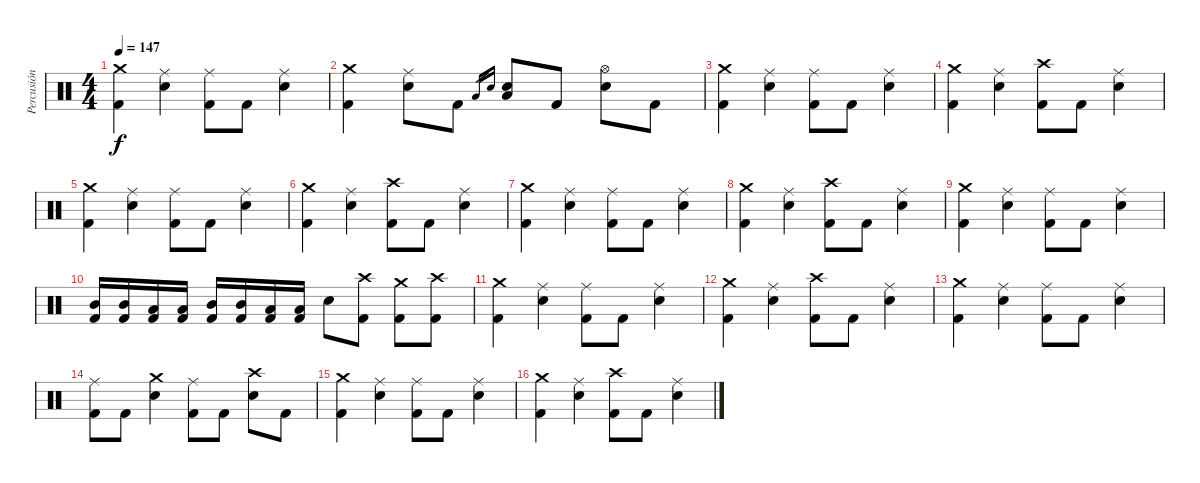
\track ("Percusión" "Percusión") {instrument percussion}
\staff {score}
\articulation defaults
\ts (4 4)
\tempo 147
\clef neutral
\ks c
("Crash medium (hit)" "Kick (hit) 2").4{dy f} ("Ride (middle)" "Snare (hit) 2").4 ("Ride (middle)" "Kick (hit) 2").8 "Kick (hit) 2".8 ("Ride (middle)" "Snare (hit) 2").4 |
("Crash medium (hit)" "Kick (hit) 2").4 ("Ride (middle)" "Snare (hit) 2").8 "Kick (hit) 2".8 "Low Tom (hit)".16{gr} "Snare (hit) 2".16{gr} ("Low Tom (hit)" "Snare (hit) 2").8 "Kick (hit) 2".8 ("Hi-Hat (open)" "Snare (hit) 2").8 "Kick (hit) 2".8 |
("Crash medium (hit)" "Kick (hit) 2").4 ("Ride (middle)" "Snare (hit) 2").4 ("Ride (middle)" "Kick (hit) 2").8 "Kick (hit) 2".8 ("Ride (middle)" "Snare (hit) 2").4 |
("Crash medium (hit)" "Kick (hit) 2").4 ("Ride (middle)" "Snare (hit) 2").4 ("Crash high (hit)" "Kick (hit) 2").8 "Kick (hit) 2".8 ("Ride (middle)" "Snare (hit) 2").4 |
("Crash medium (hit)" "Kick (hit) 2").4 ("Ride (middle)" "Snare (hit) 2").4 ("Ride (middle)" "Kick (hit) 2").8 "Kick (hit) 2".8 ("Ride (middle)" "Snare (hit) 2").4 |
("Crash medium (hit)" "Kick (hit) 2").4 ("Ride (middle)" "Snare (hit) 2").4 ("Crash high (hit)" "Kick (hit) 2").8 "Kick (hit) 2".8 ("Ride (middle)" "Snare (hit) 2").4 |
("Crash medium (hit)" "Kick (hit) 2").4 ("Ride (middle)" "Snare (hit) 2").4 ("Ride (middle)" "Kick (hit) 2").8 "Kick (hit) 2".8 ("Ride (middle)" "Snare (hit) 2").4 |
("Crash medium (hit)" "Kick (hit) 2").4 ("Ride (middle)" "Snare (hit) 2").4 ("Crash high (hit)" "Kick (hit) 2").8 "Kick (hit) 2".8 ("Ride (middle)" "Snare (hit) 2").4 |
("Crash medium (hit)" "Kick (hit) 2").4 ("Ride (middle)" "Snare (hit) 2").4 ("Ride (middle)" "Kick (hit) 2").8 "Kick (hit) 2".8 ("Ride (middle)" "Snare (hit) 2").4 |
("Mid Tom (hit)" "Kick (hit) 2").16 ("Mid Tom (hit)" "Kick (hit) 2").16 ("Low Tom (hit)" "Kick (hit) 2").16 ("Low Tom (hit)" "Kick (hit) 2").16 ("Mid Tom (hit)" "Kick (hit) 2").16 ("Mid Tom (hit)" "Kick (hit) 2").16 ("Low Tom (hit)" "Kick (hit) 2").16 ("Low Tom (hit)" "Kick (hit) 2").16 "Snare (hit) 2".8 ("Crash high (hit)" "Kick (hit) 2").8 ("Crash medium (hit)" "Kick (hit) 2").8 ("Crash high (hit)" "Kick (hit) 2").8 |
("Crash medium (hit)" "Kick (hit) 2").4 ("Ride (middle)" "Snare (hit) 2").4 ("Ride (middle)" "Kick (hit) 2").8 "Kick (hit) 2".8 ("Ride (middle)" "Snare (hit) 2").4 |
("Crash medium (hit)" "Kick (hit) 2").4 ("Ride (middle)" "Snare (hit) 2").4 ("Crash high (hit)" "Kick (hit) 2").8 "Kick (hit) 2".8 ("Ride (middle)" "Snare (hit) 2").4 |
("Crash medium (hit)" "Kick (hit) 2").4 ("Ride (middle)" "Snare (hit) 2").4 ("Ride (middle)" "Kick (hit) 2").8 "Kick (hit) 2".8 ("Ride (middle)" "Snare (hit) 2").4 |
("Ride (middle)" "Kick (hit) 2").8 "Kick (hit) 2".8 ("Crash medium (hit)" "Snare (hit) 2").4 ("Ride (middle)" "Kick (hit) 2").8 "Kick (hit) 2".8 ("Crash high (hit)" "Snare (hit) 2").8 "Kick (hit) 2".8 |
("Crash medium (hit)" "Kick (hit) 2").4 ("Ride (middle)" "Snare (hit) 2").4 ("Ride (middle)" "Kick (hit) 2").8 "Kick (hit) 2".8 ("Ride (middle)" "Snare (hit) 2").4 |
("Crash medium (hit)" "Kick (hit) 2").4 ("Ride (middle)" "Snare (hit) 2").4 ("Crash high (hit)" "Kick (hit) 2").8 "Kick (hit) 2".8 ("Ride (middle)" "Snare (hit) 2").4
